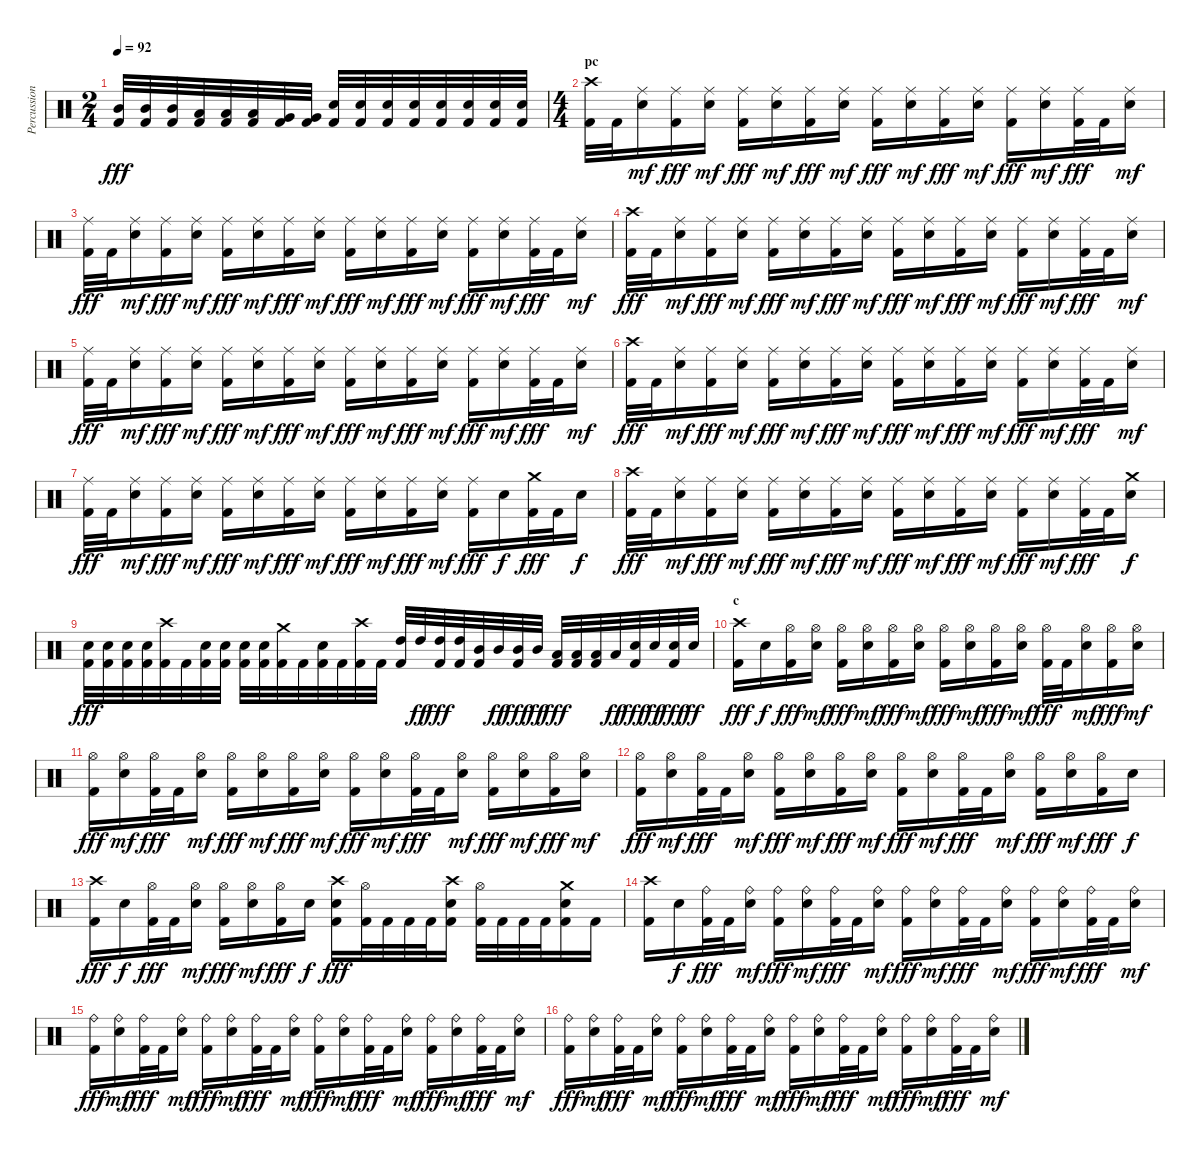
\track ("Percussion" "Percussion") {instrument percussion}
\staff {score}
\articulation defaults
\ts (2 4)
\tempo 92
\clef neutral
\ks c
("Mid Tom (hit)" "Kick (hit) 2").32{dy fff} ("Mid Tom (hit)" "Kick (hit) 2").32 ("Mid Tom (hit)" "Kick (hit) 2").32 ("Low Tom (hit)" "Kick (hit) 2").32 ("Low Tom (hit)" "Kick (hit) 2").32 ("Low Tom (hit)" "Kick (hit) 2").32 ("Very Low Tom (hit)" "Kick (hit) 2").32 ("Very Low Tom (hit)" "Kick (hit) 2").32 ("Electric Snare (hit)" "Kick (hit) 2").32 ("Electric Snare (hit)" "Kick (hit) 2").32 ("Electric Snare (hit)" "Kick (hit) 2").32 ("Electric Snare (hit)" "Kick (hit) 2").32 ("Electric Snare (hit)" "Kick (hit) 2").32 ("Electric Snare (hit)" "Kick (hit) 2").32 ("Electric Snare (hit)" "Kick (hit) 2").32 ("Electric Snare (hit)" "Kick (hit) 2").32 |
\ts (4 4)
\section ("" "pc")
("Crash high (hit)" "Kick (hit) 2").32 "Kick (hit) 2".32 ("Ride (middle)" "Electric Snare (hit)").16{dy mf} ("Ride (middle)" "Kick (hit) 2").16{dy fff} ("Ride (middle)" "Electric Snare (hit)").16{dy mf} ("Ride (middle)" "Kick (hit) 2").16{dy fff} ("Ride (middle)" "Electric Snare (hit)").16{dy mf} ("Ride (middle)" "Kick (hit) 2").16{dy fff} ("Ride (middle)" "Electric Snare (hit)").16{dy mf} ("Ride (middle)" "Kick (hit) 2").16{dy fff} ("Ride (middle)" "Electric Snare (hit)").16{dy mf} ("Ride (middle)" "Kick (hit) 2").16{dy fff} ("Ride (middle)" "Electric Snare (hit)").16{dy mf} ("Ride (middle)" "Kick (hit) 2").16{dy fff} ("Ride (middle)" "Electric Snare (hit)").16{dy mf} ("Ride (middle)" "Kick (hit) 2").32{dy fff} "Kick (hit) 2".32 ("Ride (middle)" "Electric Snare (hit)").16{dy mf} |
("Ride (middle)" "Kick (hit) 2").32{dy fff} "Kick (hit) 2".32 ("Ride (middle)" "Electric Snare (hit)").16{dy mf} ("Ride (middle)" "Kick (hit) 2").16{dy fff} ("Ride (middle)" "Electric Snare (hit)").16{dy mf} ("Ride (middle)" "Kick (hit) 2").16{dy fff} ("Ride (middle)" "Electric Snare (hit)").16{dy mf} ("Ride (middle)" "Kick (hit) 2").16{dy fff} ("Ride (middle)" "Electric Snare (hit)").16{dy mf} ("Ride (middle)" "Kick (hit) 2").16{dy fff} ("Ride (middle)" "Electric Snare (hit)").16{dy mf} ("Ride (middle)" "Kick (hit) 2").16{dy fff} ("Ride (middle)" "Electric Snare (hit)").16{dy mf} ("Ride (middle)" "Kick (hit) 2").16{dy fff} ("Ride (middle)" "Electric Snare (hit)").16{dy mf} ("Ride (middle)" "Kick (hit) 2").32{dy fff} "Kick (hit) 2".32 ("Ride (middle)" "Electric Snare (hit)").16{dy mf} |
("Crash high (hit)" "Kick (hit) 2").32{dy fff} "Kick (hit) 2".32 ("Ride (middle)" "Electric Snare (hit)").16{dy mf} ("Ride (middle)" "Kick (hit) 2").16{dy fff} ("Ride (middle)" "Electric Snare (hit)").16{dy mf} ("Ride (middle)" "Kick (hit) 2").16{dy fff} ("Ride (middle)" "Electric Snare (hit)").16{dy mf} ("Ride (middle)" "Kick (hit) 2").16{dy fff} ("Ride (middle)" "Electric Snare (hit)").16{dy mf} ("Ride (middle)" "Kick (hit) 2").16{dy fff} ("Ride (middle)" "Electric Snare (hit)").16{dy mf} ("Ride (middle)" "Kick (hit) 2").16{dy fff} ("Ride (middle)" "Electric Snare (hit)").16{dy mf} ("Ride (middle)" "Kick (hit) 2").16{dy fff} ("Ride (middle)" "Electric Snare (hit)").16{dy mf} ("Ride (middle)" "Kick (hit) 2").32{dy fff} "Kick (hit) 2".32 ("Ride (middle)" "Electric Snare (hit)").16{dy mf} |
("Ride (middle)" "Kick (hit) 2").32{dy fff} "Kick (hit) 2".32 ("Ride (middle)" "Electric Snare (hit)").16{dy mf} ("Ride (middle)" "Kick (hit) 2").16{dy fff} ("Ride (middle)" "Electric Snare (hit)").16{dy mf} ("Ride (middle)" "Kick (hit) 2").16{dy fff} ("Ride (middle)" "Electric Snare (hit)").16{dy mf} ("Ride (middle)" "Kick (hit) 2").16{dy fff} ("Ride (middle)" "Electric Snare (hit)").16{dy mf} ("Ride (middle)" "Kick (hit) 2").16{dy fff} ("Ride (middle)" "Electric Snare (hit)").16{dy mf} ("Ride (middle)" "Kick (hit) 2").16{dy fff} ("Ride (middle)" "Electric Snare (hit)").16{dy mf} ("Ride (middle)" "Kick (hit) 2").16{dy fff} ("Ride (middle)" "Electric Snare (hit)").16{dy mf} ("Ride (middle)" "Kick (hit) 2").32{dy fff} "Kick (hit) 2".32 ("Ride (middle)" "Electric Snare (hit)").16{dy mf} |
("Crash high (hit)" "Kick (hit) 2").32{dy fff} "Kick (hit) 2".32 ("Ride (middle)" "Electric Snare (hit)").16{dy mf} ("Ride (middle)" "Kick (hit) 2").16{dy fff} ("Ride (middle)" "Electric Snare (hit)").16{dy mf} ("Ride (middle)" "Kick (hit) 2").16{dy fff} ("Ride (middle)" "Electric Snare (hit)").16{dy mf} ("Ride (middle)" "Kick (hit) 2").16{dy fff} ("Ride (middle)" "Electric Snare (hit)").16{dy mf} ("Ride (middle)" "Kick (hit) 2").16{dy fff} ("Ride (middle)" "Electric Snare (hit)").16{dy mf} ("Ride (middle)" "Kick (hit) 2").16{dy fff} ("Ride (middle)" "Electric Snare (hit)").16{dy mf} ("Ride (middle)" "Kick (hit) 2").16{dy fff} ("Ride (middle)" "Electric Snare (hit)").16{dy mf} ("Ride (middle)" "Kick (hit) 2").32{dy fff} "Kick (hit) 2".32 ("Ride (middle)" "Electric Snare (hit)").16{dy mf} |
("Ride (middle)" "Kick (hit) 2").32{dy fff} "Kick (hit) 2".32 ("Ride (middle)" "Electric Snare (hit)").16{dy mf} ("Ride (middle)" "Kick (hit) 2").16{dy fff} ("Ride (middle)" "Electric Snare (hit)").16{dy mf} ("Ride (middle)" "Kick (hit) 2").16{dy fff} ("Ride (middle)" "Electric Snare (hit)").16{dy mf} ("Ride (middle)" "Kick (hit) 2").16{dy fff} ("Ride (middle)" "Electric Snare (hit)").16{dy mf} ("Ride (middle)" "Kick (hit) 2").16{dy fff} ("Ride (middle)" "Electric Snare (hit)").16{dy mf} ("Ride (middle)" "Kick (hit) 2").16{dy fff} ("Ride (middle)" "Electric Snare (hit)").16{dy mf} ("Ride (middle)" "Kick (hit) 2").16{dy fff} "Electric Snare (hit)".16{dy f} ("Crash medium (hit)" "Kick (hit) 2").32{dy fff} "Kick (hit) 2".32 "Electric Snare (hit)".16{dy f} |
("Crash high (hit)" "Kick (hit) 2").32{dy fff} "Kick (hit) 2".32 ("Ride (middle)" "Electric Snare (hit)").16{dy mf} ("Ride (middle)" "Kick (hit) 2").16{dy fff} ("Ride (middle)" "Electric Snare (hit)").16{dy mf} ("Ride (middle)" "Kick (hit) 2").16{dy fff} ("Ride (middle)" "Electric Snare (hit)").16{dy mf} ("Ride (middle)" "Kick (hit) 2").16{dy fff} ("Ride (middle)" "Electric Snare (hit)").16{dy mf} ("Ride (middle)" "Kick (hit) 2").16{dy fff} ("Ride (middle)" "Electric Snare (hit)").16{dy mf} ("Ride (middle)" "Kick (hit) 2").16{dy fff} ("Ride (middle)" "Electric Snare (hit)").16{dy mf} ("Ride (middle)" "Kick (hit) 2").16{dy fff} ("Ride (middle)" "Electric Snare (hit)").16{dy mf} ("Ride (middle)" "Kick (hit) 2").32{dy fff} "Kick (hit) 2".32 ("Crash medium (hit)" "Electric Snare (hit)").16{dy f} |
("Electric Snare (hit)" "Kick (hit) 2").32{dy fff} ("Electric Snare (hit)" "Kick (hit) 2").32 ("Electric Snare (hit)" "Kick (hit) 2").32 ("Electric Snare (hit)" "Kick (hit) 2").32 ("Crash high (hit)" "Kick (hit) 2").32 "Kick (hit) 2".32 ("Electric Snare (hit)" "Kick (hit) 2").32 ("Electric Snare (hit)" "Kick (hit) 2").32 ("Electric Snare (hit)" "Kick (hit) 2").32 ("Electric Snare (hit)" "Kick (hit) 2").32 ("Crash medium (hit)" "Kick (hit) 2").32 "Kick (hit) 2".32 ("Electric Snare (hit)" "Kick (hit) 2").32 "Kick (hit) 2".32 ("Crash high (hit)" "Kick (hit) 2").32 "Kick (hit) 2".32 ("High Tom (hit)" "Kick (hit) 2").32 "High Tom (hit)".32{dy ff} ("High Tom (hit)" "Kick (hit) 2").32{dy fff} ("High Tom (hit)" "Kick (hit) 2").32 ("Mid Tom (hit)" "Kick (hit) 2").32 "Mid Tom (hit)".32{dy ff} ("Mid Tom (hit)" "Kick (hit) 2").32{dy fff} "Mid Tom (hit)".32{dy ff} ("Low Tom (hit)" "Kick (hit) 2").32{dy fff} ("Low Tom (hit)" "Kick (hit) 2").32 ("Low Tom (hit)" "Kick (hit) 2").32 "Low Tom (hit)".32{dy ff} ("Electric Snare (hit)" "Kick (hit) 2").32{dy fff} "Electric Snare (hit)".32{dy ff} ("Electric Snare (hit)" "Kick (hit) 2").32{dy fff} "Electric Snare (hit)".32{dy ff} |
\section ("" "c")
("Crash high (hit)" "Kick (hit) 2").16{dy fff} "Electric Snare (hit)".16{dy f} ("Hi-Hat (open)" "Kick (hit) 2").16{dy fff} ("Hi-Hat (open)" "Electric Snare (hit)").16{dy mf} ("Hi-Hat (open)" "Kick (hit) 2").16{dy fff} ("Hi-Hat (open)" "Electric Snare (hit)").16{dy mf} ("Hi-Hat (open)" "Kick (hit) 2").16{dy fff} ("Hi-Hat (open)" "Electric Snare (hit)").16{dy mf} ("Hi-Hat (open)" "Kick (hit) 2").16{dy fff} ("Hi-Hat (open)" "Electric Snare (hit)").16{dy mf} ("Hi-Hat (open)" "Kick (hit) 2").16{dy fff} ("Hi-Hat (open)" "Electric Snare (hit)").16{dy mf} ("Hi-Hat (open)" "Kick (hit) 2").32{dy fff} "Kick (hit) 2".32 ("Hi-Hat (open)" "Electric Snare (hit)").16{dy mf} ("Hi-Hat (open)" "Kick (hit) 2").16{dy fff} ("Hi-Hat (open)" "Electric Snare (hit)").16{dy mf} |
("Hi-Hat (open)" "Kick (hit) 2").16{dy fff} ("Hi-Hat (open)" "Electric Snare (hit)").16{dy mf} ("Hi-Hat (open)" "Kick (hit) 2").32{dy fff} "Kick (hit) 2".32 ("Hi-Hat (open)" "Electric Snare (hit)").16{dy mf} ("Hi-Hat (open)" "Kick (hit) 2").16{dy fff} ("Hi-Hat (open)" "Electric Snare (hit)").16{dy mf} ("Hi-Hat (open)" "Kick (hit) 2").16{dy fff} ("Hi-Hat (open)" "Electric Snare (hit)").16{dy mf} ("Hi-Hat (open)" "Kick (hit) 2").16{dy fff} ("Hi-Hat (open)" "Electric Snare (hit)").16{dy mf} ("Hi-Hat (open)" "Kick (hit) 2").32{dy fff} "Kick (hit) 2".32 ("Hi-Hat (open)" "Electric Snare (hit)").16{dy mf} ("Hi-Hat (open)" "Kick (hit) 2").16{dy fff} ("Hi-Hat (open)" "Electric Snare (hit)").16{dy mf} ("Hi-Hat (open)" "Kick (hit) 2").16{dy fff} ("Hi-Hat (open)" "Electric Snare (hit)").16{dy mf} |
("Hi-Hat (open)" "Kick (hit) 2").16{dy fff} ("Hi-Hat (open)" "Electric Snare (hit)").16{dy mf} ("Hi-Hat (open)" "Kick (hit) 2").32{dy fff} "Kick (hit) 2".32 ("Hi-Hat (open)" "Electric Snare (hit)").16{dy mf} ("Hi-Hat (open)" "Kick (hit) 2").16{dy fff} ("Hi-Hat (open)" "Electric Snare (hit)").16{dy mf} ("Hi-Hat (open)" "Kick (hit) 2").16{dy fff} ("Hi-Hat (open)" "Electric Snare (hit)").16{dy mf} ("Hi-Hat (open)" "Kick (hit) 2").16{dy fff} ("Hi-Hat (open)" "Electric Snare (hit)").16{dy mf} ("Hi-Hat (open)" "Kick (hit) 2").32{dy fff} "Kick (hit) 2".32 ("Hi-Hat (open)" "Electric Snare (hit)").16{dy mf} ("Hi-Hat (open)" "Kick (hit) 2").16{dy fff} ("Hi-Hat (open)" "Electric Snare (hit)").16{dy mf} ("Hi-Hat (open)" "Kick (hit) 2").16{dy fff} "Electric Snare (hit)".16{dy f} |
("Crash high (hit)" "Kick (hit) 2").16{dy fff} "Electric Snare (hit)".16{dy f} ("Hi-Hat (open)" "Kick (hit) 2").32{dy fff} "Kick (hit) 2".32 ("Hi-Hat (open)" "Electric Snare (hit)").16{dy mf} ("Hi-Hat (open)" "Kick (hit) 2").16{dy fff} ("Hi-Hat (open)" "Electric Snare (hit)").16{dy mf} ("Hi-Hat (open)" "Kick (hit) 2").16{dy fff} "Electric Snare (hit)".16{dy f} ("Crash high (hit)" "Electric Snare (hit)" "Kick (hit) 2").16{dy fff} ("Hi-Hat (open)" "Kick (hit) 2").32 "Kick (hit) 2".32 "Kick (hit) 2".32 "Kick (hit) 2".32 ("Crash high (hit)" "Electric Snare (hit)" "Kick (hit) 2").16 ("Hi-Hat (open)" "Kick (hit) 2").32 "Kick (hit) 2".32 "Kick (hit) 2".32 "Kick (hit) 2".32 ("Crash medium (hit)" "Electric Snare (hit)" "Kick (hit) 2").16 "Kick (hit) 2".16 |
("Crash high (hit)" "Kick (hit) 2").16 "Electric Snare (hit)".16{dy f} ("Ride (bell)" "Kick (hit) 2").32{dy fff} "Kick (hit) 2".32 ("Ride (bell)" "Electric Snare (hit)").16{dy mf} ("Ride (bell)" "Kick (hit) 2").16{dy fff} ("Ride (bell)" "Electric Snare (hit)").16{dy mf} ("Ride (bell)" "Kick (hit) 2").32{dy fff} "Kick (hit) 2".32 ("Ride (bell)" "Electric Snare (hit)").16{dy mf} ("Ride (bell)" "Kick (hit) 2").16{dy fff} ("Ride (bell)" "Electric Snare (hit)").16{dy mf} ("Ride (bell)" "Kick (hit) 2").32{dy fff} "Kick (hit) 2".32 ("Ride (bell)" "Electric Snare (hit)").16{dy mf} ("Ride (bell)" "Kick (hit) 2").16{dy fff} ("Ride (bell)" "Electric Snare (hit)").16{dy mf} ("Ride (bell)" "Kick (hit) 2").32{dy fff} "Kick (hit) 2".32 ("Ride (bell)" "Electric Snare (hit)").16{dy mf} |
("Ride (bell)" "Kick (hit) 2").16{dy fff} ("Ride (bell)" "Electric Snare (hit)").16{dy mf} ("Ride (bell)" "Kick (hit) 2").32{dy fff} "Kick (hit) 2".32 ("Ride (bell)" "Electric Snare (hit)").16{dy mf} ("Ride (bell)" "Kick (hit) 2").16{dy fff} ("Ride (bell)" "Electric Snare (hit)").16{dy mf} ("Ride (bell)" "Kick (hit) 2").32{dy fff} "Kick (hit) 2".32 ("Ride (bell)" "Electric Snare (hit)").16{dy mf} ("Ride (bell)" "Kick (hit) 2").16{dy fff} ("Ride (bell)" "Electric Snare (hit)").16{dy mf} ("Ride (bell)" "Kick (hit) 2").32{dy fff} "Kick (hit) 2".32 ("Ride (bell)" "Electric Snare (hit)").16{dy mf} ("Ride (bell)" "Kick (hit) 2").16{dy fff} ("Ride (bell)" "Electric Snare (hit)").16{dy mf} ("Ride (bell)" "Kick (hit) 2").32{dy fff} "Kick (hit) 2".32 ("Ride (bell)" "Electric Snare (hit)").16{dy mf} |
("Ride (bell)" "Kick (hit) 2").16{dy fff} ("Ride (bell)" "Electric Snare (hit)").16{dy mf} ("Ride (bell)" "Kick (hit) 2").32{dy fff} "Kick (hit) 2".32 ("Ride (bell)" "Electric Snare (hit)").16{dy mf} ("Ride (bell)" "Kick (hit) 2").16{dy fff} ("Ride (bell)" "Electric Snare (hit)").16{dy mf} ("Ride (bell)" "Kick (hit) 2").32{dy fff} "Kick (hit) 2".32 ("Ride (bell)" "Electric Snare (hit)").16{dy mf} ("Ride (bell)" "Kick (hit) 2").16{dy fff} ("Ride (bell)" "Electric Snare (hit)").16{dy mf} ("Ride (bell)" "Kick (hit) 2").32{dy fff} "Kick (hit) 2".32 ("Ride (bell)" "Electric Snare (hit)").16{dy mf} ("Ride (bell)" "Kick (hit) 2").16{dy fff} ("Ride (bell)" "Electric Snare (hit)").16{dy mf} ("Ride (bell)" "Kick (hit) 2").32{dy fff} "Kick (hit) 2".32 ("Ride (bell)" "Electric Snare (hit)").16{dy mf}
